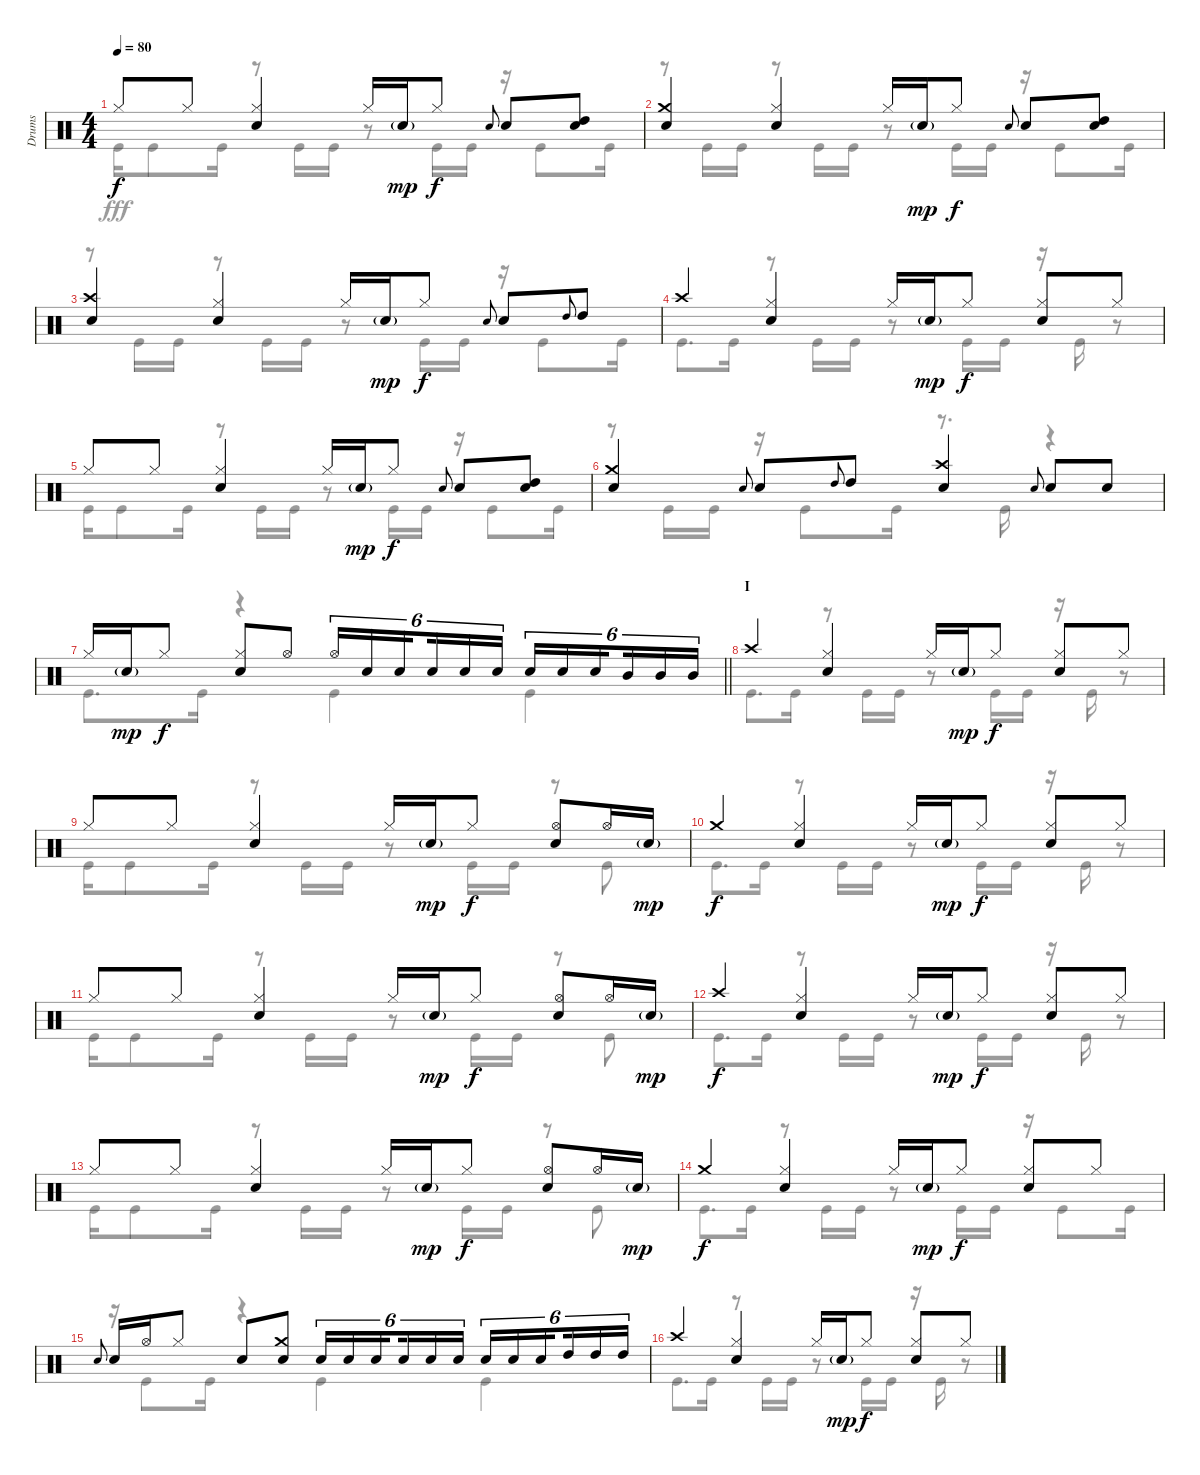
\track ("Drums" "Drums") {instrument percussion}
\staff {score}
\articulation defaults
\voice
\ts (4 4)
\tempo 80
\clef neutral
\ks c "Hi-Hat (closed)".8{dy f} "Hi-Hat (closed)".8
("Hi-Hat (closed)" "Snare (hit) 2").4 "Hi-Hat (closed)".16 "Snare (hit) 2"{g}.16{dy mp} "Hi-Hat (closed)".8{dy f} "Snare (hit) 2".8{gr onbeat} "Snare (hit) 2".8 ("High Tom (hit)" "Snare (hit) 2").8 |
("Crash medium (hit)" "Snare (hit) 2").4 ("Hi-Hat (closed)" "Snare (hit) 2").4 "Hi-Hat (closed)".16 "Snare (hit) 2"{g}.16{dy mp} "Hi-Hat (closed)".8{dy f} "Snare (hit) 2".8{gr onbeat} "Snare (hit) 2".8 ("High Tom (hit)" "Snare (hit) 2").8 |
("Crash high (hit)" "Snare (hit) 2").4 ("Hi-Hat (closed)" "Snare (hit) 2").4 "Hi-Hat (closed)".16 "Snare (hit) 2"{g}.16{dy mp} "Hi-Hat (closed)".8{dy f} "Snare (hit) 2".8{gr onbeat} "Snare (hit) 2".8 "High Tom (hit)".8{gr onbeat} "High Tom (hit)".8 |
"Crash high (hit)".4 ("Hi-Hat (closed)" "Snare (hit) 2").4 "Hi-Hat (closed)".16 "Snare (hit) 2"{g}.16{dy mp} "Hi-Hat (closed)".8{dy f} ("Hi-Hat (closed)" "Snare (hit) 2").8 "Hi-Hat (closed)".8 |
"Hi-Hat (closed)".8 "Hi-Hat (closed)".8 ("Hi-Hat (closed)" "Snare (hit) 2").4 "Hi-Hat (closed)".16 "Snare (hit) 2"{g}.16{dy mp} "Hi-Hat (closed)".8{dy f} "Snare (hit) 2".8{gr onbeat} "Snare (hit) 2".8 ("High Tom (hit)" "Snare (hit) 2").8 |
("Crash medium (hit)" "Snare (hit) 2").4 "Snare (hit) 2".8{gr onbeat} "Snare (hit) 2".8 "High Tom (hit)".8{gr onbeat} "High Tom (hit)".8 ("Crash high (hit)" "Snare (hit) 2").4 "Snare (hit) 2".8{gr onbeat} "Snare (hit) 2".8 "Snare (hit) 2".8 |
\barLineRight lightlight "Hi-Hat (closed)".16 "Snare (hit) 2"{g}.16{dy mp} "Hi-Hat (closed)".8{dy f}
("Hi-Hat (closed)" "Snare (hit) 2").8 "Hi-Hat (open)".8 "Hi-Hat (open)".16{tu (6 4)} "Snare (hit) 2".16{tu (6 4)} "Snare (hit) 2".16{tu (6 4) beam splitsecondary} "Snare (hit) 2".16{tu (6 4)} "Snare (hit) 2".16{tu (6 4)} "Snare (hit) 2".16{tu (6 4)} "Snare (hit) 2".16{tu (6 4)} "Snare (hit) 2".16{tu (6 4)} "Snare (hit) 2".16{tu (6 4) beam splitsecondary} "Mid Tom (hit)".16{tu (6 4)} "Mid Tom (hit)".16{tu (6 4)} "Mid Tom (hit)".16{tu (6 4)} |
\section ("" "I")
"Crash high (hit)".4 ("Hi-Hat (closed)" "Snare (hit) 2").4 "Hi-Hat (closed)".16 "Snare (hit) 2"{g}.16{dy mp} "Hi-Hat (closed)".8{dy f} ("Hi-Hat (closed)" "Snare (hit) 2").8 "Hi-Hat (closed)".8 |
"Hi-Hat (closed)".8 "Hi-Hat (closed)".8 ("Hi-Hat (closed)" "Snare (hit) 2").4 "Hi-Hat (closed)".16 "Snare (hit) 2"{g}.16{dy mp} "Hi-Hat (closed)".8{dy f} ("Hi-Hat (open)" "Snare (hit) 2").8 "Hi-Hat (open)".16 "Snare (hit) 2"{g}.16{dy mp} |
"Crash medium (hit)".4{dy f} ("Hi-Hat (closed)" "Snare (hit) 2").4 "Hi-Hat (closed)".16 "Snare (hit) 2"{g}.16{dy mp} "Hi-Hat (closed)".8{dy f} ("Hi-Hat (closed)" "Snare (hit) 2").8 "Hi-Hat (closed)".8 |
"Hi-Hat (closed)".8 "Hi-Hat (closed)".8 ("Hi-Hat (closed)" "Snare (hit) 2").4 "Hi-Hat (closed)".16 "Snare (hit) 2"{g}.16{dy mp} "Hi-Hat (closed)".8{dy f} ("Hi-Hat (open)" "Snare (hit) 2").8 "Hi-Hat (open)".16 "Snare (hit) 2"{g}.16{dy mp} |
"Crash high (hit)".4{dy f} ("Hi-Hat (closed)" "Snare (hit) 2").4 "Hi-Hat (closed)".16 "Snare (hit) 2"{g}.16{dy mp} "Hi-Hat (closed)".8{dy f} ("Hi-Hat (closed)" "Snare (hit) 2").8 "Hi-Hat (closed)".8 |
"Hi-Hat (closed)".8 "Hi-Hat (closed)".8 ("Hi-Hat (closed)" "Snare (hit) 2").4 "Hi-Hat (closed)".16 "Snare (hit) 2"{g}.16{dy mp} "Hi-Hat (closed)".8{dy f} ("Hi-Hat (open)" "Snare (hit) 2").8 "Hi-Hat (open)".16 "Snare (hit) 2"{g}.16{dy mp} |
"Crash medium (hit)".4{dy f} ("Hi-Hat (closed)" "Snare (hit) 2").4 "Hi-Hat (closed)".16 "Snare (hit) 2"{g}.16{dy mp} "Hi-Hat (closed)".8{dy f} ("Hi-Hat (closed)" "Snare (hit) 2").8 "Hi-Hat (closed)".8 |
"Snare (hit) 2".8{gr onbeat} "Snare (hit) 2".16 "Hi-Hat (open)".16 "Hi-Hat (closed)".8 "Snare (hit) 2".8 ("Crash medium (hit)" "Snare (hit) 2").8 "Snare (hit) 2".16{tu (6 4)} "Snare (hit) 2".16{tu (6 4)} "Snare (hit) 2".16{tu (6 4) beam splitsecondary} "Snare (hit) 2".16{tu (6 4)} "Snare (hit) 2".16{tu (6 4)} "Snare (hit) 2".16{tu (6 4)} "Snare (hit) 2".16{tu (6 4)} "Snare (hit) 2".16{tu (6 4)} "Snare (hit) 2".16{tu (6 4) beam splitsecondary} "High Tom (hit)".16{tu (6 4)} "High Tom (hit)".16{tu (6 4)} "High Tom (hit)".16{tu (6 4)} |
"Crash high (hit)".4 ("Hi-Hat (closed)" "Snare (hit) 2").4 "Hi-Hat (closed)".16 "Snare (hit) 2"{g}.16{dy mp} "Hi-Hat (closed)".8{dy f} ("Hi-Hat (closed)" "Snare (hit) 2").8 "Hi-Hat (closed)".8
\voice
\clef neutral
\ottava regular
\simile none
\ks c "Kick (hit)".16{dy fff} "Kick (hit)".8 "Kick (hit)".16
r.8 "Kick (hit)".16 "Kick (hit)".16 r.8 "Kick (hit)".16 "Kick (hit)".16 r.16 "Kick (hit)".8 "Kick (hit)".16 |
r.8 "Kick (hit)".16 "Kick (hit)".16 r.8 "Kick (hit)".16 "Kick (hit)".16 r.8 "Kick (hit)".16 "Kick (hit)".16 r.16 "Kick (hit)".8 "Kick (hit)".16 |
r.8 "Kick (hit)".16 "Kick (hit)".16 r.8 "Kick (hit)".16 "Kick (hit)".16 r.8 "Kick (hit)".16 "Kick (hit)".16 r.16 "Kick (hit)".8 "Kick (hit)".16 |
"Kick (hit)".8{d} "Kick (hit)".16 r.8 "Kick (hit)".16 "Kick (hit)".16 r.8 "Kick (hit)".16 "Kick (hit)".16 r.16 "Kick (hit)".16 r.8 |
"Kick (hit)".16 "Kick (hit)".8 "Kick (hit)".16 r.8 "Kick (hit)".16 "Kick (hit)".16 r.8 "Kick (hit)".16 "Kick (hit)".16 r.16 "Kick (hit)".8 "Kick (hit)".16 |
r.8 "Kick (hit)".16 "Kick (hit)".16 r.16 "Kick (hit)".8 "Kick (hit)".16 r.8{d} "Kick (hit)".16 r.4 |
\barLineRight lightlight "Kick (hit)".8{d} "Kick (hit)".16
r.4 "Kick (hit)".4 "Kick (hit)".4 |
"Kick (hit)".8{d} "Kick (hit)".16 r.8 "Kick (hit)".16 "Kick (hit)".16 r.8 "Kick (hit)".16 "Kick (hit)".16 r.16 "Kick (hit)".16 r.8 |
"Kick (hit)".16 "Kick (hit)".8 "Kick (hit)".16 r.8 "Kick (hit)".16 "Kick (hit)".16 r.8 "Kick (hit)".16 "Kick (hit)".16 r.8 "Kick (hit)".8 |
"Kick (hit)".8{d} "Kick (hit)".16 r.8 "Kick (hit)".16 "Kick (hit)".16 r.8 "Kick (hit)".16 "Kick (hit)".16 r.16 "Kick (hit)".16 r.8 |
"Kick (hit)".16 "Kick (hit)".8 "Kick (hit)".16 r.8 "Kick (hit)".16 "Kick (hit)".16 r.8 "Kick (hit)".16 "Kick (hit)".16 r.8 "Kick (hit)".8 |
"Kick (hit)".8{d} "Kick (hit)".16 r.8 "Kick (hit)".16 "Kick (hit)".16 r.8 "Kick (hit)".16 "Kick (hit)".16 r.16 "Kick (hit)".16 r.8 |
"Kick (hit)".16 "Kick (hit)".8 "Kick (hit)".16 r.8 "Kick (hit)".16 "Kick (hit)".16 r.8 "Kick (hit)".16 "Kick (hit)".16 r.8 "Kick (hit)".8 |
"Kick (hit)".8{d} "Kick (hit)".16 r.8 "Kick (hit)".16 "Kick (hit)".16 r.8 "Kick (hit)".16 "Kick (hit)".16 r.16 "Kick (hit)".8 "Kick (hit)".16 |
r.16 "Kick (hit)".8 "Kick (hit)".16 r.4 "Kick (hit)".4 "Kick (hit)".4 |
"Kick (hit)".8{d} "Kick (hit)".16 r.8 "Kick (hit)".16 "Kick (hit)".16 r.8 "Kick (hit)".16 "Kick (hit)".16 r.16 "Kick (hit)".16 r.8
